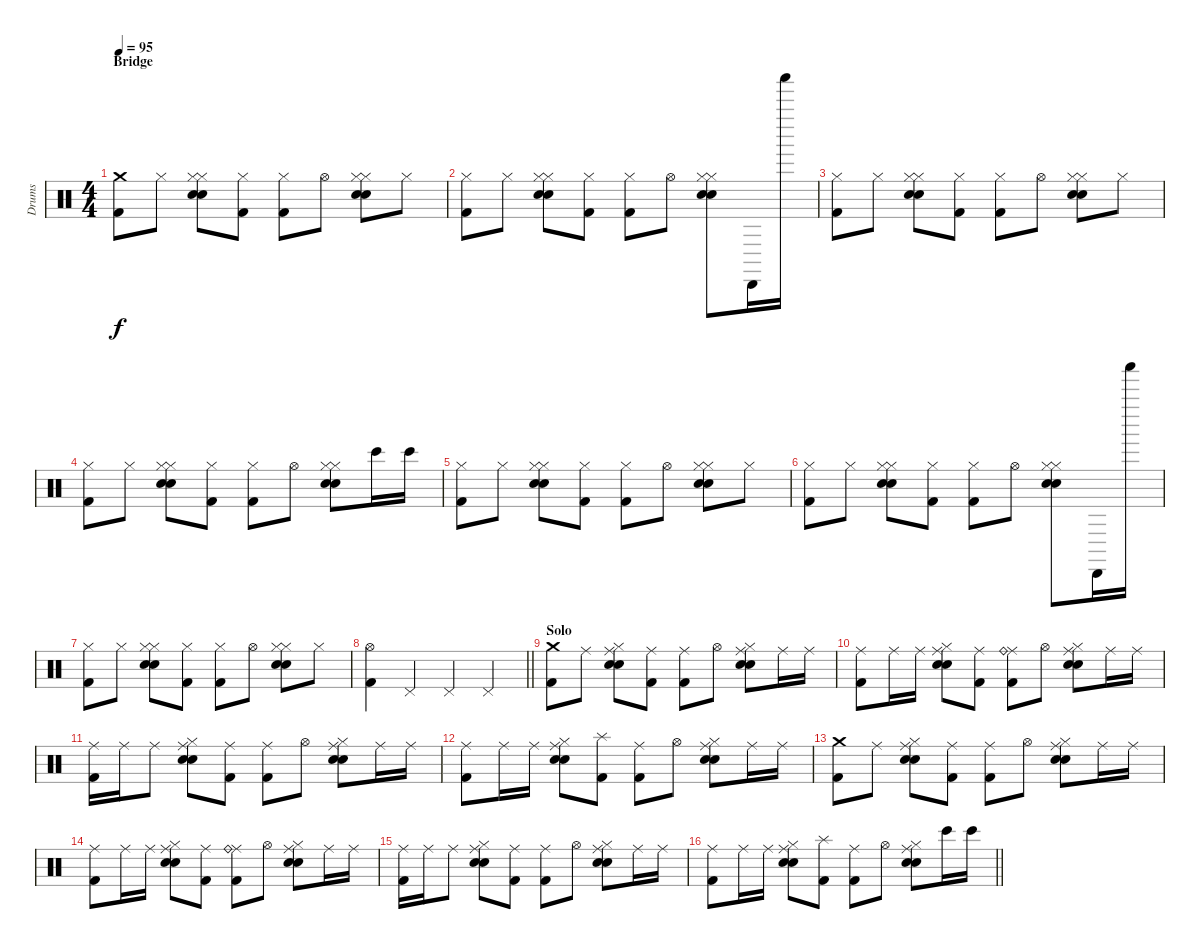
\track ("Drums" "Drums") {instrument percussion}
\staff {score}
\articulation defaults
\ts (4 4)
\section ("" "Bridge")
\tempo 95
\clef neutral
\ks c
("Crash medium (hit)" "Kick (hit) 2").8{dy f} "Hi-Hat (closed)".8 ("Hi-Hat (closed)" "Hand Clap (hit)" "Hi-Hat (closed)" "Electric Snare (hit)").8 ("Hi-Hat (closed)" "Kick (hit) 2").8 ("Hi-Hat (closed)" "Kick (hit) 2").8 "Hi-Hat (open)".8 ("Hi-Hat (closed)" "Hand Clap (hit)" "Hi-Hat (closed)" "Electric Snare (hit)").8 "Hi-Hat (closed)".8 |
("Hi-Hat (closed)" "Kick (hit) 2").8 "Hi-Hat (closed)".8 ("Hi-Hat (closed)" "Hand Clap (hit)" "Hi-Hat (closed)" "Electric Snare (hit)").8 ("Hi-Hat (closed)" "Kick (hit) 2").8 ("Hi-Hat (closed)" "Kick (hit) 2").8 "Hi-Hat (open)".8 ("Hi-Hat (closed)" "Hand Clap (hit)" "Hi-Hat (closed)" "Electric Snare (hit)").8 "Cabasa (hit)".16 "Shaker (hit)".16 |
("Hi-Hat (closed)" "Kick (hit) 2").8 "Hi-Hat (closed)".8 ("Hi-Hat (closed)" "Hand Clap (hit)" "Hi-Hat (closed)" "Electric Snare (hit)").8 ("Hi-Hat (closed)" "Kick (hit) 2").8 ("Hi-Hat (closed)" "Kick (hit) 2").8 "Hi-Hat (open)".8 ("Hi-Hat (closed)" "Hand Clap (hit)" "Hi-Hat (closed)" "Electric Snare (hit)").8 "Hi-Hat (closed)".8 |
("Hi-Hat (closed)" "Kick (hit) 2").8 "Hi-Hat (closed)".8 ("Hi-Hat (closed)" "Hand Clap (hit)" "Hi-Hat (closed)" "Electric Snare (hit)").8 ("Hi-Hat (closed)" "Kick (hit) 2").8 ("Hi-Hat (closed)" "Kick (hit) 2").8 "Hi-Hat (open)".8 ("Hi-Hat (closed)" "Hand Clap (hit)" "Hi-Hat (closed)" "Electric Snare (hit)").8 "Bongo High (hit)".16 "Bongo High (hit)".16 |
("Hi-Hat (closed)" "Kick (hit) 2").8 "Hi-Hat (closed)".8 ("Hi-Hat (closed)" "Hand Clap (hit)" "Hi-Hat (closed)" "Electric Snare (hit)").8 ("Hi-Hat (closed)" "Kick (hit) 2").8 ("Hi-Hat (closed)" "Kick (hit) 2").8 "Hi-Hat (open)".8 ("Hi-Hat (closed)" "Hand Clap (hit)" "Hi-Hat (closed)" "Electric Snare (hit)").8 "Hi-Hat (closed)".8 |
("Hi-Hat (closed)" "Kick (hit) 2").8 "Hi-Hat (closed)".8 ("Hi-Hat (closed)" "Hand Clap (hit)" "Hi-Hat (closed)" "Electric Snare (hit)").8 ("Hi-Hat (closed)" "Kick (hit) 2").8 ("Hi-Hat (closed)" "Kick (hit) 2").8 "Hi-Hat (open)".8 ("Hi-Hat (closed)" "Hand Clap (hit)" "Hi-Hat (closed)" "Electric Snare (hit)").8 "Cabasa (hit)".16 "Shaker (hit)".16 |
("Hi-Hat (closed)" "Kick (hit) 2").8 "Hi-Hat (closed)".8 ("Hi-Hat (closed)" "Hand Clap (hit)" "Hi-Hat (closed)" "Electric Snare (hit)").8 ("Hi-Hat (closed)" "Kick (hit) 2").8 ("Hi-Hat (closed)" "Kick (hit) 2").8 "Hi-Hat (open)".8 ("Hi-Hat (closed)" "Hand Clap (hit)" "Hi-Hat (closed)" "Electric Snare (hit)").8 "Hi-Hat (closed)".8 |
\barLineRight lightlight
("Hi-Hat (open)" "Kick (hit) 2").4 "Pedal Hi-Hat (hit)".4 "Pedal Hi-Hat (hit)".4 "Pedal Hi-Hat (hit)".4 |
\section ("" "Solo")
("Crash medium (hit)" "Kick (hit) 2").8 "Ride (middle)".8 ("Ride (middle)" "Hand Clap (hit)" "Hi-Hat (closed)" "Electric Snare (hit)").8 ("Ride (middle)" "Kick (hit) 2").8 ("Ride (middle)" "Kick (hit) 2").8 "Hi-Hat (open)".8 ("Ride (middle)" "Hand Clap (hit)" "Hi-Hat (closed)" "Electric Snare (hit)").8 "Ride (middle)".16 "Ride (middle)".16 |
("Ride (middle)" "Kick (hit) 2").8 "Ride (middle)".16 "Ride (middle)".16 ("Ride (middle)" "Hand Clap (hit)" "Hi-Hat (closed)" "Electric Snare (hit)").8 ("Ride (middle)" "Kick (hit) 2").8 ("Ride (middle)" "Ride (bell)" "Kick (hit) 2").8 "Hi-Hat (open)".8 ("Ride (middle)" "Hand Clap (hit)" "Hi-Hat (closed)" "Electric Snare (hit)").8 "Ride (middle)".16 "Ride (middle)".16 |
("Ride (middle)" "Kick (hit) 2").16 "Ride (middle)".16 "Ride (middle)".8 ("Ride (middle)" "Hand Clap (hit)" "Hi-Hat (closed)" "Electric Snare (hit)").8 ("Ride (middle)" "Kick (hit) 2").8 ("Ride (middle)" "Kick (hit) 2").8 "Hi-Hat (open)".8 ("Ride (middle)" "Hand Clap (hit)" "Hi-Hat (closed)" "Electric Snare (hit)").8 "Ride (middle)".16 "Ride (middle)".16 |
("Ride (middle)" "Kick (hit) 2").8 "Ride (middle)".16 "Ride (middle)".16 ("Ride (middle)" "Hand Clap (hit)" "Hi-Hat (closed)" "Electric Snare (hit)").8 ("Splash (hit)" "Kick (hit) 2").8 ("Ride (middle)" "Kick (hit) 2").8 "Hi-Hat (open)".8 ("Ride (middle)" "Hand Clap (hit)" "Hi-Hat (closed)" "Electric Snare (hit)").8 "Ride (middle)".16 "Ride (middle)".16 |
("Crash medium (hit)" "Kick (hit) 2").8 "Ride (middle)".8 ("Ride (middle)" "Hand Clap (hit)" "Hi-Hat (closed)" "Electric Snare (hit)").8 ("Ride (middle)" "Kick (hit) 2").8 ("Ride (middle)" "Kick (hit) 2").8 "Hi-Hat (open)".8 ("Ride (middle)" "Hand Clap (hit)" "Hi-Hat (closed)" "Electric Snare (hit)").8 "Ride (middle)".16 "Ride (middle)".16 |
("Ride (middle)" "Kick (hit) 2").8 "Ride (middle)".16 "Ride (middle)".16 ("Ride (middle)" "Hand Clap (hit)" "Hi-Hat (closed)" "Electric Snare (hit)").8 ("Ride (middle)" "Kick (hit) 2").8 ("Ride (middle)" "Ride (bell)" "Kick (hit) 2").8 "Hi-Hat (open)".8 ("Ride (middle)" "Hand Clap (hit)" "Hi-Hat (closed)" "Electric Snare (hit)").8 "Ride (middle)".16 "Ride (middle)".16 |
("Ride (middle)" "Kick (hit) 2").16 "Ride (middle)".16 "Ride (middle)".8 ("Ride (middle)" "Hand Clap (hit)" "Hi-Hat (closed)" "Electric Snare (hit)").8 ("Ride (middle)" "Kick (hit) 2").8 ("Ride (middle)" "Kick (hit) 2").8 "Hi-Hat (open)".8 ("Ride (middle)" "Hand Clap (hit)" "Hi-Hat (closed)" "Electric Snare (hit)").8 "Ride (middle)".16 "Ride (middle)".16 |
\barLineRight lightlight
("Ride (middle)" "Kick (hit) 2").8 "Ride (middle)".16 "Ride (middle)".16 ("Ride (middle)" "Hand Clap (hit)" "Hi-Hat (closed)" "Electric Snare (hit)").8 ("Splash (hit)" "Kick (hit) 2").8 ("Ride (middle)" "Kick (hit) 2").8 "Hi-Hat (open)".8 ("Ride (middle)" "Hand Clap (hit)" "Hi-Hat (closed)" "Electric Snare (hit)").8 "Bongo High (hit)".16 "Bongo High (hit)".16
